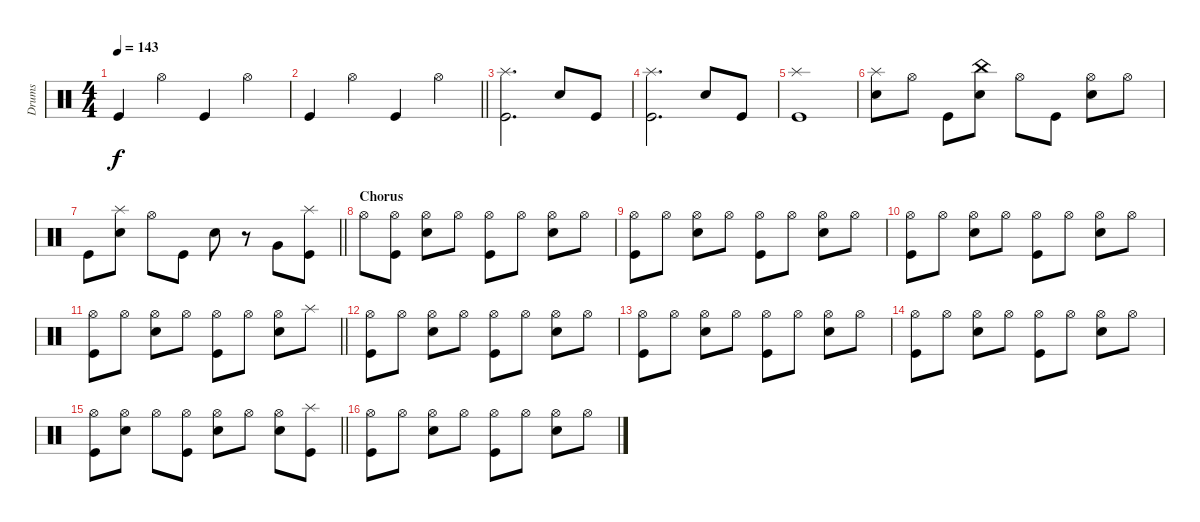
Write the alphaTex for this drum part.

\track ("Drums" "Drums") {instrument percussion}
\staff
\articulation defaults
\ts (4 4)
\tempo 143
\clef neutral
\ks c "Kick (hit)".4{dy f} "Hi-Hat (open)".4 "Kick (hit)".4 "Hi-Hat (open)".4
|
\barLineRight lightlight "Kick (hit)".4 "Hi-Hat (open)".4 "Kick (hit)".4 "Hi-Hat (open)".4
|
("Splash (hit)" "Kick (hit)").2{d} "Snare (hit) 2".8 "Kick (hit)".8 |
("Splash (hit)" "Kick (hit)").2{d} "Snare (hit) 2".8 "Kick (hit)".8 |
("Splash (hit)" "Kick (hit)").1 |
("Splash (hit)" "Snare (hit) 2").8 "Hi-Hat (open)".8 "Kick (hit)".8 ("China (hit)" "Snare (hit) 2").8 "Hi-Hat (open)".8 "Kick (hit)".8 ("Hi-Hat (open)" "Snare (hit) 2").8 "Hi-Hat (open)".8 |
\barLineRight lightlight "Kick (hit)".8
("Splash (hit)" "Snare (hit) 2").8 "Hi-Hat (open)".8 "Kick (hit)".8 "Snare (hit) 2".8 r.8 "Very Low Tom (hit)".8 ("Splash (hit)" "Kick (hit)").8 |
\section ("" "Chorus")
"Hi-Hat (open)".8 ("Hi-Hat (open)" "Kick (hit)").8 ("Hi-Hat (open)" "Snare (hit) 2").8 "Hi-Hat (open)".8 ("Hi-Hat (open)" "Kick (hit)").8 "Hi-Hat (open)".8 ("Hi-Hat (open)" "Snare (hit) 2").8 "Hi-Hat (open)".8 |
("Hi-Hat (open)" "Kick (hit)").8 "Hi-Hat (open)".8 ("Hi-Hat (open)" "Snare (hit) 2").8 "Hi-Hat (open)".8 ("Hi-Hat (open)" "Kick (hit)").8 "Hi-Hat (open)".8 ("Hi-Hat (open)" "Snare (hit) 2").8 "Hi-Hat (open)".8 |
("Hi-Hat (open)" "Kick (hit)").8 "Hi-Hat (open)".8 ("Hi-Hat (open)" "Snare (hit) 2").8 "Hi-Hat (open)".8 ("Hi-Hat (open)" "Kick (hit)").8 "Hi-Hat (open)".8 ("Hi-Hat (open)" "Snare (hit) 2").8 "Hi-Hat (open)".8 |
\barLineRight lightlight
("Hi-Hat (open)" "Kick (hit)").8 "Hi-Hat (open)".8 ("Hi-Hat (open)" "Snare (hit) 2").8 "Hi-Hat (open)".8 ("Hi-Hat (open)" "Kick (hit)").8 "Hi-Hat (open)".8 ("Hi-Hat (open)" "Snare (hit) 2").8 "Splash (hit)".8 |
("Hi-Hat (open)" "Kick (hit)").8 "Hi-Hat (open)".8 ("Hi-Hat (open)" "Snare (hit) 2").8 "Hi-Hat (open)".8 ("Hi-Hat (open)" "Kick (hit)").8 "Hi-Hat (open)".8 ("Hi-Hat (open)" "Snare (hit) 2").8 "Hi-Hat (open)".8 |
("Hi-Hat (open)" "Kick (hit)").8 "Hi-Hat (open)".8 ("Hi-Hat (open)" "Snare (hit) 2").8 "Hi-Hat (open)".8 ("Hi-Hat (open)" "Kick (hit)").8 "Hi-Hat (open)".8 ("Hi-Hat (open)" "Snare (hit) 2").8 "Hi-Hat (open)".8 |
("Hi-Hat (open)" "Kick (hit)").8 "Hi-Hat (open)".8 ("Hi-Hat (open)" "Snare (hit) 2").8 "Hi-Hat (open)".8 ("Hi-Hat (open)" "Kick (hit)").8 "Hi-Hat (open)".8 ("Hi-Hat (open)" "Snare (hit) 2").8 "Hi-Hat (open)".8 |
\barLineRight lightlight
("Hi-Hat (open)" "Kick (hit)").8 ("Hi-Hat (open)" "Snare (hit) 2").8 "Hi-Hat (open)".8 ("Hi-Hat (open)" "Kick (hit)").8 ("Hi-Hat (open)" "Snare (hit) 2").8 "Hi-Hat (open)".8 ("Hi-Hat (open)" "Snare (hit) 2").8 ("Splash (hit)" "Kick (hit)").8 |
("Hi-Hat (open)" "Kick (hit)").8 "Hi-Hat (open)".8 ("Hi-Hat (open)" "Snare (hit) 2").8 "Hi-Hat (open)".8 ("Hi-Hat (open)" "Kick (hit)").8 "Hi-Hat (open)".8 ("Hi-Hat (open)" "Snare (hit) 2").8 "Hi-Hat (open)".8
